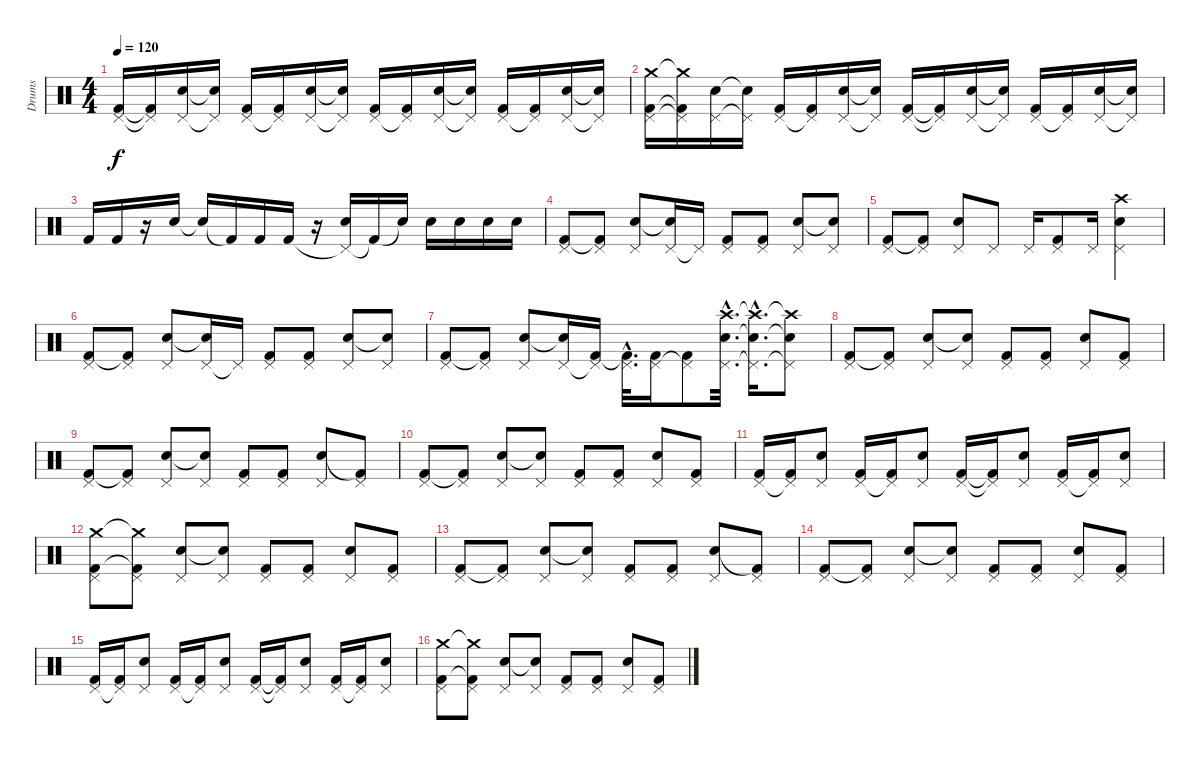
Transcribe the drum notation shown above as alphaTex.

\track ("Drums" "Drums") {instrument percussion}
\staff {score}
\articulation defaults
\ts (4 4)
\tempo 120
\clef neutral
\ks c
("Pedal Hi-Hat (hit)" "Kick (hit) 2").16{dy f} ("Pedal Hi-Hat (hit)"{t} "Kick (hit) 2"{t}).16 ("Pedal Hi-Hat (hit)" "Snare (hit) 2").16 ("Pedal Hi-Hat (hit)"{t} "Snare (hit) 2"{t}).16 ("Pedal Hi-Hat (hit)" "Kick (hit) 2").16 ("Pedal Hi-Hat (hit)"{t} "Kick (hit) 2").16 ("Pedal Hi-Hat (hit)" "Snare (hit) 2").16 ("Pedal Hi-Hat (hit)"{t} "Snare (hit) 2"{t}).16 ("Pedal Hi-Hat (hit)" "Kick (hit) 2").16 ("Pedal Hi-Hat (hit)"{t} "Kick (hit) 2").16 ("Pedal Hi-Hat (hit)" "Snare (hit) 2").16 ("Pedal Hi-Hat (hit)"{t} "Snare (hit) 2"{t}).16 ("Pedal Hi-Hat (hit)" "Kick (hit) 2").16 ("Pedal Hi-Hat (hit)"{t} "Kick (hit) 2").16 ("Pedal Hi-Hat (hit)" "Snare (hit) 2").16 ("Pedal Hi-Hat (hit)"{t} "Snare (hit) 2"{t}).16 |
("Pedal Hi-Hat (hit)" "Crash medium (hit)" "Kick (hit) 2").16 ("Pedal Hi-Hat (hit)"{t} "Crash medium (hit)"{t} "Kick (hit) 2"{t}).16 ("Pedal Hi-Hat (hit)" "Snare (hit) 2").16 ("Pedal Hi-Hat (hit)"{t} "Snare (hit) 2"{t}).16 ("Pedal Hi-Hat (hit)" "Kick (hit) 2").16 ("Pedal Hi-Hat (hit)"{t} "Kick (hit) 2").16 ("Pedal Hi-Hat (hit)" "Snare (hit) 2").16 ("Pedal Hi-Hat (hit)"{t} "Snare (hit) 2"{t}).16 ("Pedal Hi-Hat (hit)" "Kick (hit) 2").16 ("Pedal Hi-Hat (hit)"{t} "Kick (hit) 2"{t}).16 ("Pedal Hi-Hat (hit)" "Snare (hit) 2").16 ("Pedal Hi-Hat (hit)"{t} "Snare (hit) 2"{t}).16 ("Pedal Hi-Hat (hit)" "Kick (hit) 2").16 ("Pedal Hi-Hat (hit)"{t} "Kick (hit) 2").16 ("Pedal Hi-Hat (hit)" "Snare (hit) 2").16 ("Pedal Hi-Hat (hit)"{t} "Snare (hit) 2"{t}).16 |
"Kick (hit) 2".16 "Kick (hit) 2".16 r.16 "Snare (hit) 2".16 "Snare (hit) 2"{t}.16 "Kick (hit) 2"{t}.16 "Kick (hit) 2".16 "Kick (hit) 2".16 r.16 ("Pedal Hi-Hat (hit)"{t} "Snare (hit) 2").16 "Kick (hit) 2"{t}.16 "Snare (hit) 2"{t}.16 "Snare (hit) 2".16 "Snare (hit) 2".16 "Snare (hit) 2".16 "Snare (hit) 2".16 |
("Pedal Hi-Hat (hit)" "Kick (hit) 2").8 ("Pedal Hi-Hat (hit)" "Kick (hit) 2"{t}).8 ("Pedal Hi-Hat (hit)" "Snare (hit) 2").8 ("Pedal Hi-Hat (hit)" "Snare (hit) 2"{t}).16 "Pedal Hi-Hat (hit)"{t}.16 ("Pedal Hi-Hat (hit)" "Kick (hit) 2").8 ("Pedal Hi-Hat (hit)" "Kick (hit) 2").8 ("Pedal Hi-Hat (hit)" "Snare (hit) 2").8 ("Pedal Hi-Hat (hit)" "Snare (hit) 2"{t}).8 |
("Pedal Hi-Hat (hit)" "Kick (hit) 2").8 ("Pedal Hi-Hat (hit)" "Kick (hit) 2"{t}).8 ("Pedal Hi-Hat (hit)" "Snare (hit) 2").8 "Pedal Hi-Hat (hit)".8 "Pedal Hi-Hat (hit)".16 ("Pedal Hi-Hat (hit)" "Kick (hit) 2").8 "Pedal Hi-Hat (hit)".16 ("Pedal Hi-Hat (hit)" "Crash high (hit)" "Snare (hit) 2").4 |
("Pedal Hi-Hat (hit)" "Kick (hit) 2").8 ("Pedal Hi-Hat (hit)" "Kick (hit) 2"{t}).8 ("Pedal Hi-Hat (hit)" "Snare (hit) 2").8 ("Pedal Hi-Hat (hit)" "Snare (hit) 2"{t}).16 "Pedal Hi-Hat (hit)"{t}.16 ("Pedal Hi-Hat (hit)" "Kick (hit) 2").8 ("Pedal Hi-Hat (hit)" "Kick (hit) 2").8 ("Pedal Hi-Hat (hit)" "Snare (hit) 2").8 ("Pedal Hi-Hat (hit)" "Snare (hit) 2"{t}).8 |
("Pedal Hi-Hat (hit)" "Kick (hit) 2").8 ("Pedal Hi-Hat (hit)" "Kick (hit) 2"{t}).8 ("Pedal Hi-Hat (hit)" "Snare (hit) 2").8 ("Pedal Hi-Hat (hit)" "Snare (hit) 2"{t}).16 ("Pedal Hi-Hat (hit)"{t} "Kick (hit) 2").16 ("Pedal Hi-Hat (hit)"{hac} "Kick (hit) 2"{hac t}).32{d} ("Pedal Hi-Hat (hit)" "Kick (hit) 2").16 ("Pedal Hi-Hat (hit)"{t} "Kick (hit) 2").8 ("Pedal Hi-Hat (hit)"{hac} "Crash high (hit)"{hac} "Snare (hit) 2"{hac}).32{d} ("Pedal Hi-Hat (hit)"{hac t} "Crash high (hit)"{hac t} "Snare (hit) 2"{hac t}).16{d} ("Pedal Hi-Hat (hit)"{t} "Crash high (hit)"{t} "Snare (hit) 2"{t}).8 |
("Pedal Hi-Hat (hit)" "Kick (hit) 2").8 ("Pedal Hi-Hat (hit)" "Kick (hit) 2"{t}).8 ("Pedal Hi-Hat (hit)" "Snare (hit) 2").8 ("Pedal Hi-Hat (hit)" "Snare (hit) 2"{t}).8 ("Pedal Hi-Hat (hit)" "Kick (hit) 2").8 ("Pedal Hi-Hat (hit)" "Kick (hit) 2").8 ("Pedal Hi-Hat (hit)" "Snare (hit) 2").8 ("Pedal Hi-Hat (hit)" "Kick (hit) 2").8 |
("Pedal Hi-Hat (hit)" "Kick (hit) 2").8 ("Pedal Hi-Hat (hit)" "Kick (hit) 2"{t}).8 ("Pedal Hi-Hat (hit)" "Snare (hit) 2").8 ("Pedal Hi-Hat (hit)" "Snare (hit) 2"{t}).8 ("Pedal Hi-Hat (hit)" "Kick (hit) 2").8 ("Pedal Hi-Hat (hit)" "Kick (hit) 2").8 ("Pedal Hi-Hat (hit)" "Snare (hit) 2").8 ("Pedal Hi-Hat (hit)" "Kick (hit) 2"{t}).8 |
("Pedal Hi-Hat (hit)" "Kick (hit) 2").8 ("Pedal Hi-Hat (hit)" "Kick (hit) 2"{t}).8 ("Pedal Hi-Hat (hit)" "Snare (hit) 2").8 ("Pedal Hi-Hat (hit)" "Snare (hit) 2"{t}).8 ("Pedal Hi-Hat (hit)" "Kick (hit) 2").8 ("Pedal Hi-Hat (hit)" "Kick (hit) 2").8 ("Pedal Hi-Hat (hit)" "Snare (hit) 2").8 ("Pedal Hi-Hat (hit)" "Kick (hit) 2").8 |
("Pedal Hi-Hat (hit)" "Kick (hit) 2").16 ("Pedal Hi-Hat (hit)"{t} "Kick (hit) 2").16 ("Pedal Hi-Hat (hit)" "Snare (hit) 2").8 ("Pedal Hi-Hat (hit)" "Kick (hit) 2").16 ("Pedal Hi-Hat (hit)"{t} "Kick (hit) 2").16 ("Pedal Hi-Hat (hit)" "Snare (hit) 2").8 ("Pedal Hi-Hat (hit)" "Kick (hit) 2").16 ("Pedal Hi-Hat (hit)"{t} "Kick (hit) 2"{t}).16 ("Pedal Hi-Hat (hit)" "Snare (hit) 2").8 ("Pedal Hi-Hat (hit)" "Kick (hit) 2").16 ("Pedal Hi-Hat (hit)"{t} "Kick (hit) 2").16 ("Pedal Hi-Hat (hit)" "Snare (hit) 2").8 |
("Pedal Hi-Hat (hit)" "Crash medium (hit)" "Kick (hit) 2").8 ("Pedal Hi-Hat (hit)" "Crash medium (hit)"{t} "Kick (hit) 2"{t}).8 ("Pedal Hi-Hat (hit)" "Snare (hit) 2").8 ("Pedal Hi-Hat (hit)" "Snare (hit) 2"{t}).8 ("Pedal Hi-Hat (hit)" "Kick (hit) 2").8 ("Pedal Hi-Hat (hit)" "Kick (hit) 2").8 ("Pedal Hi-Hat (hit)" "Snare (hit) 2").8 ("Pedal Hi-Hat (hit)" "Kick (hit) 2").8 |
("Pedal Hi-Hat (hit)" "Kick (hit) 2").8 ("Pedal Hi-Hat (hit)" "Kick (hit) 2"{t}).8 ("Pedal Hi-Hat (hit)" "Snare (hit) 2").8 ("Pedal Hi-Hat (hit)" "Snare (hit) 2"{t}).8 ("Pedal Hi-Hat (hit)" "Kick (hit) 2").8 ("Pedal Hi-Hat (hit)" "Kick (hit) 2").8 ("Pedal Hi-Hat (hit)" "Snare (hit) 2").8 ("Pedal Hi-Hat (hit)" "Kick (hit) 2"{t}).8 |
("Pedal Hi-Hat (hit)" "Kick (hit) 2").8 ("Pedal Hi-Hat (hit)" "Kick (hit) 2"{t}).8 ("Pedal Hi-Hat (hit)" "Snare (hit) 2").8 ("Pedal Hi-Hat (hit)" "Snare (hit) 2"{t}).8 ("Pedal Hi-Hat (hit)" "Kick (hit) 2").8 ("Pedal Hi-Hat (hit)" "Kick (hit) 2").8 ("Pedal Hi-Hat (hit)" "Snare (hit) 2").8 ("Pedal Hi-Hat (hit)" "Kick (hit) 2").8 |
("Pedal Hi-Hat (hit)" "Kick (hit) 2").16 ("Pedal Hi-Hat (hit)"{t} "Kick (hit) 2").16 ("Pedal Hi-Hat (hit)" "Snare (hit) 2").8 ("Pedal Hi-Hat (hit)" "Kick (hit) 2").16 ("Pedal Hi-Hat (hit)"{t} "Kick (hit) 2").16 ("Pedal Hi-Hat (hit)" "Snare (hit) 2").8 ("Pedal Hi-Hat (hit)" "Kick (hit) 2").16 ("Pedal Hi-Hat (hit)"{t} "Kick (hit) 2"{t}).16 ("Pedal Hi-Hat (hit)" "Snare (hit) 2").8 ("Pedal Hi-Hat (hit)" "Kick (hit) 2").16 ("Pedal Hi-Hat (hit)"{t} "Kick (hit) 2").16 ("Pedal Hi-Hat (hit)" "Snare (hit) 2").8 |
("Pedal Hi-Hat (hit)" "Crash medium (hit)" "Kick (hit) 2").8 ("Pedal Hi-Hat (hit)" "Crash medium (hit)"{t} "Kick (hit) 2"{t}).8 ("Pedal Hi-Hat (hit)" "Snare (hit) 2").8 ("Pedal Hi-Hat (hit)" "Snare (hit) 2"{t}).8 ("Pedal Hi-Hat (hit)" "Kick (hit) 2").8 ("Pedal Hi-Hat (hit)" "Kick (hit) 2").8 ("Pedal Hi-Hat (hit)" "Snare (hit) 2").8 ("Pedal Hi-Hat (hit)" "Kick (hit) 2").8
